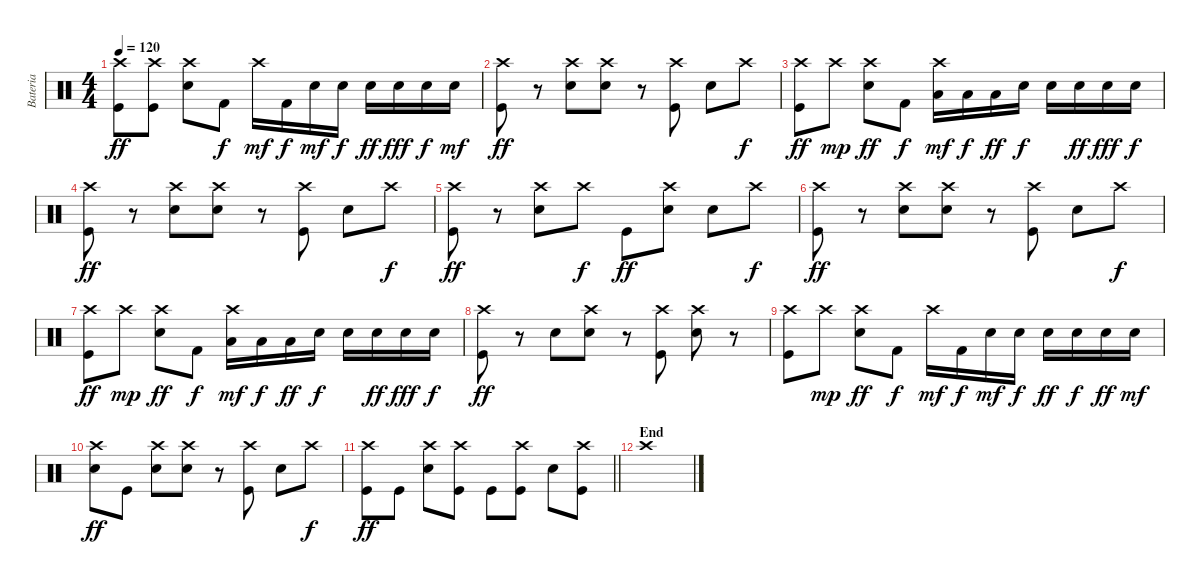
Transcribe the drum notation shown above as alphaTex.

\track ("Bateria" "Bateria") {instrument percussion}
\staff {score}
\articulation defaults
\ts (4 4)
\tempo 120
\clef neutral
\ks c
("Crash high (hit)" "Kick (hit)").8{dy ff} ("Crash high (hit)" "Kick (hit)").8 ("Crash high (hit)" "Snare (hit) 2").8 "Kick (hit) 2".8{dy f} "Crash high (hit)".16{dy mf} "Kick (hit) 2".16{dy f} "Snare (hit) 2".16{dy mf} "Snare (hit) 2".16{dy f} "Snare (hit) 2".16{dy ff} "Snare (hit) 2".16{dy fff} "Snare (hit) 2".16{dy f} "Snare (hit) 2".16{dy mf} |
("Crash high (hit)" "Kick (hit)").8{dy ff} r.8 ("Crash high (hit)" "Snare (hit) 2").8 ("Crash high (hit)" "Snare (hit) 2").8 r.8 ("Crash high (hit)" "Kick (hit)").8 "Snare (hit) 2".8 "Crash high (hit)".8{dy f} |
("Crash high (hit)" "Kick (hit)").8{dy ff} "Crash high (hit)".8{dy mp} ("Crash high (hit)" "Snare (hit) 2").8{dy ff} "Kick (hit) 2".8{dy f} ("Crash high (hit)" "Low Tom (hit)").16{dy mf} "Low Tom (hit)".16{dy f} "Low Tom (hit)".16{dy ff} "Snare (hit) 2".16{dy f} "Snare (hit) 2".16 "Snare (hit) 2".16{dy ff} "Snare (hit) 2".16{dy fff} "Snare (hit) 2".16{dy f} |
("Crash high (hit)" "Kick (hit)").8{dy ff} r.8 ("Crash high (hit)" "Snare (hit) 2").8 ("Crash high (hit)" "Snare (hit) 2").8 r.8 ("Crash high (hit)" "Kick (hit)").8 "Snare (hit) 2".8 "Crash high (hit)".8{dy f} |
("Crash high (hit)" "Kick (hit)").8{dy ff} r.8 ("Crash high (hit)" "Snare (hit) 2").8 "Crash high (hit)".8{dy f} "Kick (hit)".8{dy ff} ("Crash high (hit)" "Snare (hit) 2").8 "Snare (hit) 2".8 "Crash high (hit)".8{dy f} |
("Crash high (hit)" "Kick (hit)").8{dy ff} r.8 ("Crash high (hit)" "Snare (hit) 2").8 ("Crash high (hit)" "Snare (hit) 2").8 r.8 ("Crash high (hit)" "Kick (hit)").8 "Snare (hit) 2".8 "Crash high (hit)".8{dy f} |
("Crash high (hit)" "Kick (hit)").8{dy ff} "Crash high (hit)".8{dy mp} ("Crash high (hit)" "Snare (hit) 2").8{dy ff} "Kick (hit) 2".8{dy f} ("Crash high (hit)" "Low Tom (hit)").16{dy mf} "Low Tom (hit)".16{dy f} "Low Tom (hit)".16{dy ff} "Snare (hit) 2".16{dy f} "Snare (hit) 2".16 "Snare (hit) 2".16{dy ff} "Snare (hit) 2".16{dy fff} "Snare (hit) 2".16{dy f} |
("Crash high (hit)" "Kick (hit)").8{dy ff} r.8 "Snare (hit) 2".8 ("Crash high (hit)" "Snare (hit) 2").8 r.8 ("Crash high (hit)" "Kick (hit)").8 ("Crash high (hit)" "Snare (hit) 2").8 r.8 |
("Crash high (hit)" "Kick (hit)").8 "Crash high (hit)".8{dy mp} ("Crash high (hit)" "Snare (hit) 2").8{dy ff} "Kick (hit) 2".8{dy f} "Crash high (hit)".16{dy mf} "Kick (hit) 2".16{dy f} "Snare (hit) 2".16{dy mf} "Snare (hit) 2".16{dy f} "Snare (hit) 2".16{dy ff} "Snare (hit) 2".16{dy f} "Snare (hit) 2".16{dy ff} "Snare (hit) 2".16{dy mf} |
("Crash high (hit)" "Snare (hit) 2").8{dy ff} "Kick (hit)".8 ("Crash high (hit)" "Snare (hit) 2").8 ("Crash high (hit)" "Snare (hit) 2").8 r.8 ("Crash high (hit)" "Kick (hit)").8 "Snare (hit) 2".8 "Crash high (hit)".8{dy f} |
\barLineRight lightlight
("Crash high (hit)" "Kick (hit)").8{dy ff} "Kick (hit)".8 ("Crash high (hit)" "Snare (hit) 2").8 ("Crash high (hit)" "Kick (hit)").8 "Kick (hit)".8 ("Crash high (hit)" "Kick (hit)").8 "Snare (hit) 2".8 ("Crash high (hit)" "Kick (hit)").8 |
\section ("" "End")
"Crash high (hit)".1
